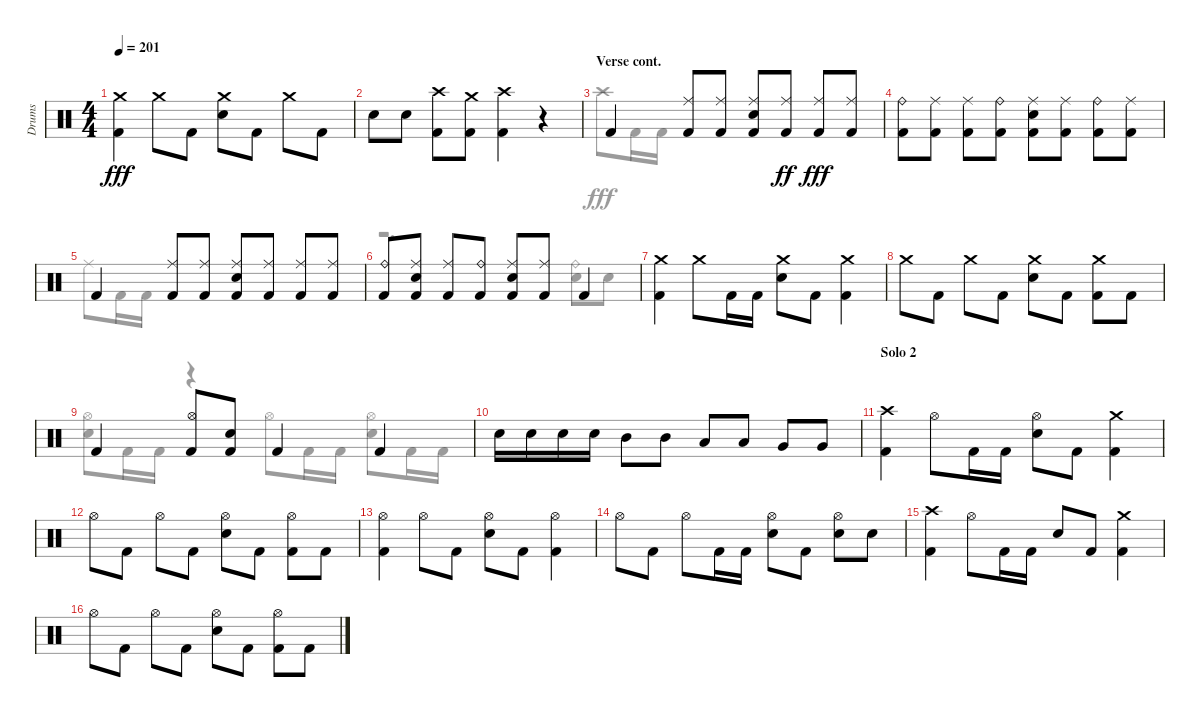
\track ("Drums" "Drums") {instrument percussion}
\staff {score}
\articulation defaults
\voice
\ts (4 4)
\tempo 201
\clef neutral
\ks aminor
("Crash medium (hit)" "Kick (hit) 2").4{dy fff} "Crash medium (hit)".8 "Kick (hit) 2".8 ("Snare (hit) 2" "Crash medium (hit)").8 "Kick (hit) 2".8 "Crash medium (hit)".8 "Kick (hit) 2".8 |
"Snare (hit) 2".8 "Snare (hit) 2".8 ("Crash high (hit)" "Kick (hit) 2").8 ("Kick (hit) 2" "Crash medium (hit)").8 ("Crash high (hit)" "Kick (hit) 2").4 r.4 |
\section ("" "Verse cont.")
"Kick (hit) 2".4 ("Kick (hit) 2" "Ride (middle)").8 ("Ride (middle)" "Kick (hit) 2").8 ("Ride (middle)" "Kick (hit) 2" "Snare (hit) 2").8 ("Kick (hit) 2" "Ride (middle)").8{dy ff} ("Kick (hit) 2" "Ride (middle)").8{dy fff} ("Kick (hit) 2" "Ride (middle)").8 |
("Ride (bell)" "Kick (hit) 2").8 ("Kick (hit) 2" "Ride (middle)").8 ("Kick (hit) 2" "Ride (middle)").8 ("Kick (hit) 2" "Ride (bell)").8 ("Ride (middle)" "Kick (hit) 2" "Snare (hit) 2").8 ("Ride (middle)" "Kick (hit) 2").8 ("Ride (bell)" "Kick (hit) 2").8 ("Kick (hit) 2" "Ride (middle)").8 |
"Kick (hit) 2".4 ("Ride (middle)" "Kick (hit) 2").8 ("Ride (middle)" "Kick (hit) 2").8 ("Snare (hit) 2" "Ride (middle)" "Kick (hit) 2").8 ("Ride (middle)" "Kick (hit) 2").8 ("Kick (hit) 2" "Ride (middle)").8 ("Kick (hit) 2" "Ride (middle)").8 |
("Kick (hit) 2" "Ride (bell)").8 ("Kick (hit) 2" "Ride (middle)" "Snare (hit) 2").8 ("Kick (hit) 2" "Ride (middle)").8 ("Kick (hit) 2" "Ride (bell)").8 ("Snare (hit) 2" "Kick (hit) 2" "Ride (middle)").8 ("Kick (hit) 2" "Ride (middle)").8 "Kick (hit) 2".4 |
("Kick (hit) 2" "Crash medium (hit)").4 "Crash medium (hit)".8 "Kick (hit) 2".16 "Kick (hit) 2".16 ("Snare (hit) 2" "Crash medium (hit)").8 "Kick (hit) 2".8 ("Kick (hit) 2" "Crash medium (hit)").4 |
"Crash medium (hit)".8 "Kick (hit) 2".8 "Crash medium (hit)".8 "Kick (hit) 2".8 ("Snare (hit) 2" "Crash medium (hit)").8 "Kick (hit) 2".8 ("Crash medium (hit)" "Kick (hit) 2").8 "Kick (hit) 2".8 |
"Kick (hit) 2".4 ("Kick (hit) 2" "Hi-Hat (open)").8 ("Kick (hit) 2" "Snare (hit) 2").8 "Kick (hit) 2".4 "Kick (hit) 2".4 |
"Snare (hit) 2".16 "Snare (hit) 2".16 "Snare (hit) 2".16 "Snare (hit) 2".16 "Mid Tom (hit)".8 "Mid Tom (hit)".8 "Low Tom (hit)".8 "Low Tom (hit)".8 "Very Low Tom (hit)".8 "Very Low Tom (hit)".8 |
\section ("" "Solo 2")
("Kick (hit) 2" "Crash high (hit)").4 "Hi-Hat (open)".8 "Kick (hit) 2".16 "Kick (hit) 2".16 ("Hi-Hat (open)" "Snare (hit) 2").8 "Kick (hit) 2".8 ("Crash medium (hit)" "Kick (hit) 2").4 |
"Hi-Hat (open)".8 "Kick (hit) 2".8 "Hi-Hat (open)".8 "Kick (hit) 2".8 ("Snare (hit) 2" "Hi-Hat (open)").8 "Kick (hit) 2".8 ("Hi-Hat (open)" "Kick (hit) 2").8 "Kick (hit) 2".8 |
("Kick (hit) 2" "Hi-Hat (open)").4 "Hi-Hat (open)".8 "Kick (hit) 2".8 ("Hi-Hat (open)" "Snare (hit) 2").8 "Kick (hit) 2".8 ("Hi-Hat (open)" "Kick (hit) 2").4 |
"Hi-Hat (open)".8 "Kick (hit) 2".8 "Hi-Hat (open)".8 "Kick (hit) 2".16 "Kick (hit) 2".16 ("Hi-Hat (open)" "Snare (hit) 2").8 "Kick (hit) 2".8 ("Hi-Hat (open)" "Snare (hit) 2").8 "Snare (hit) 2".8 |
("Crash high (hit)" "Kick (hit) 2").4 "Hi-Hat (open)".8 "Kick (hit) 2".16 "Kick (hit) 2".16 "Snare (hit) 2".8 "Kick (hit) 2".8 ("Crash medium (hit)" "Kick (hit) 2").4 |
"Hi-Hat (open)".8 "Kick (hit) 2".8 "Hi-Hat (open)".8 "Kick (hit) 2".8 ("Hi-Hat (open)" "Snare (hit) 2").8 "Kick (hit) 2".8 ("Kick (hit) 2" "Hi-Hat (open)").8 "Kick (hit) 2".8
\voice
\clef neutral
\ottava regular
\simile none
\ks aminor
|
|
"Crash high (hit)".8 "Kick (hit) 2".16 "Kick (hit) 2".16 |
|
"Ride (middle)".8 "Kick (hit) 2".16 "Kick (hit) 2".16 |
r.2{d} ("Snare (hit) 2" "Ride (bell)").8 "Snare (hit) 2".8 |
|
|
("Snare (hit) 2" "Hi-Hat (open)").8 "Kick (hit) 2".16 "Kick (hit) 2".16 r.4 "Hi-Hat (open)".8 "Kick (hit) 2".16 "Kick (hit) 2".16 ("Snare (hit) 2" "Hi-Hat (open)").8 "Kick (hit) 2".16 "Kick (hit) 2".16 |
|
|
|
|
|
|
